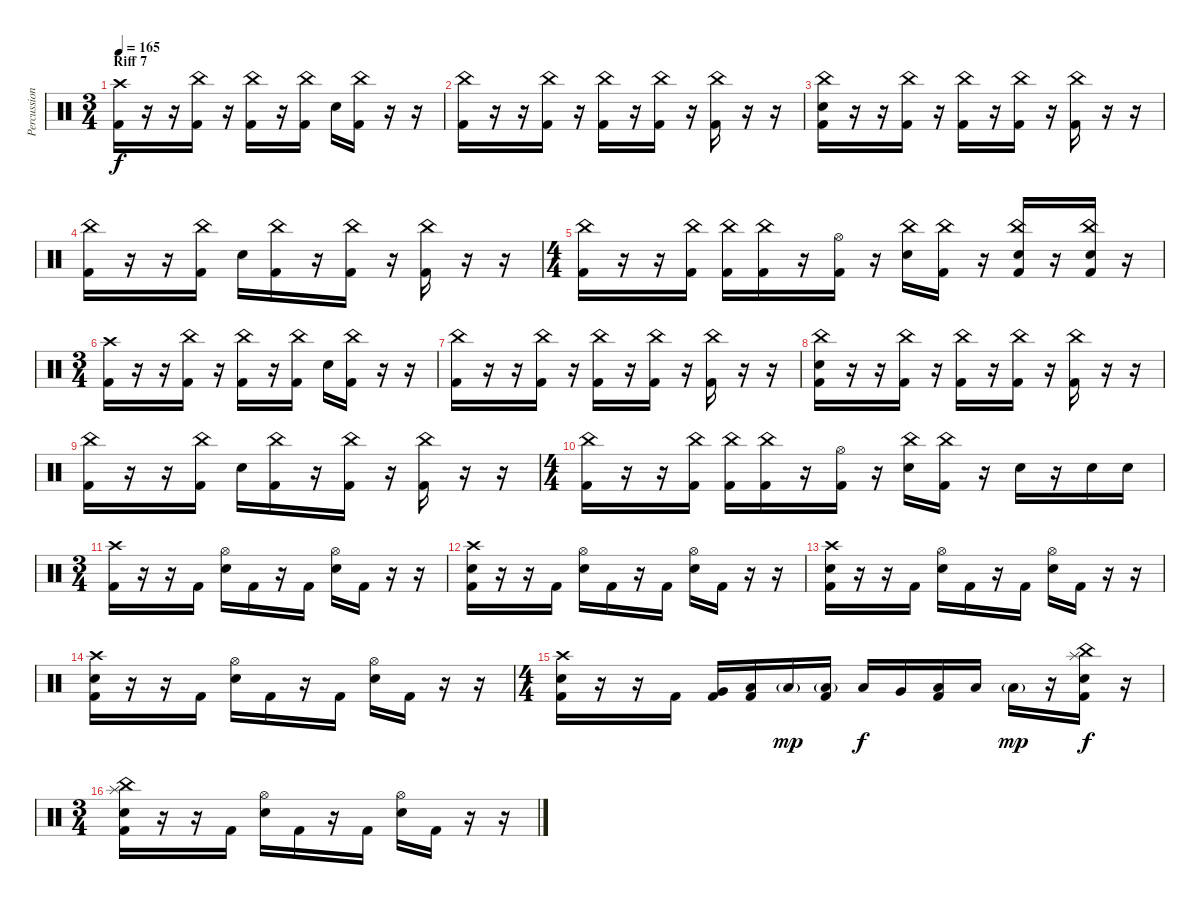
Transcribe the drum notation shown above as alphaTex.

\track ("Percussion" "Percussion") {instrument percussion}
\staff {score}
\articulation defaults
\ts (3 4)
\section ("" "Riff 7")
\tempo 165
\clef neutral
\ks c
("Crash high (hit)" "Kick (hit) 2").16{dy f} r.16 r.16 ("China (hit)" "Kick (hit) 2").16 r.16 ("China (hit)" "Kick (hit) 2").16 r.16 ("China (hit)" "Kick (hit) 2").16 "Electric Snare (hit)".16 ("China (hit)" "Kick (hit) 2").16 r.16 r.16 |
("China (hit)" "Kick (hit) 2").16 r.16 r.16 ("China (hit)" "Kick (hit) 2").16 r.16 ("China (hit)" "Kick (hit) 2").16 r.16 ("China (hit)" "Kick (hit) 2").16 r.16 ("China (hit)" "Kick (hit) 2").16 r.16 r.16 |
("China (hit)" "Electric Snare (hit)" "Kick (hit) 2").16 r.16 r.16 ("China (hit)" "Kick (hit) 2").16 r.16 ("China (hit)" "Kick (hit) 2").16 r.16 ("China (hit)" "Kick (hit) 2").16 r.16 ("China (hit)" "Kick (hit) 2").16 r.16 r.16 |
("China (hit)" "Kick (hit) 2").16 r.16 r.16 ("China (hit)" "Kick (hit) 2").16 "Electric Snare (hit)".16 ("China (hit)" "Kick (hit) 2").16 r.16 ("China (hit)" "Kick (hit) 2").16 r.16 ("China (hit)" "Kick (hit) 2").16 r.16 r.16 |
\ts (4 4)
("China (hit)" "Kick (hit) 2").16 r.16 r.16 ("China (hit)" "Kick (hit) 2").16 ("China (hit)" "Kick (hit) 2").16 ("China (hit)" "Kick (hit) 2").16 r.16 ("Hi-Hat (open)" "Kick (hit) 2").16 r.16 ("China (hit)" "Electric Snare (hit)").16 ("China (hit)" "Kick (hit) 2").16 r.16 ("China (hit)" "Electric Snare (hit)" "Kick (hit) 2").16 r.16 ("China (hit)" "Electric Snare (hit)" "Kick (hit) 2").16 r.16 |
\ts (3 4)
("Crash high (hit)" "Kick (hit) 2").16 r.16 r.16 ("China (hit)" "Kick (hit) 2").16 r.16 ("China (hit)" "Kick (hit) 2").16 r.16 ("China (hit)" "Kick (hit) 2").16 "Electric Snare (hit)".16 ("China (hit)" "Kick (hit) 2").16 r.16 r.16 |
("China (hit)" "Kick (hit) 2").16 r.16 r.16 ("China (hit)" "Kick (hit) 2").16 r.16 ("China (hit)" "Kick (hit) 2").16 r.16 ("China (hit)" "Kick (hit) 2").16 r.16 ("China (hit)" "Kick (hit) 2").16 r.16 r.16 |
("China (hit)" "Electric Snare (hit)" "Kick (hit) 2").16 r.16 r.16 ("China (hit)" "Kick (hit) 2").16 r.16 ("China (hit)" "Kick (hit) 2").16 r.16 ("China (hit)" "Kick (hit) 2").16 r.16 ("China (hit)" "Kick (hit) 2").16 r.16 r.16 |
("China (hit)" "Kick (hit) 2").16 r.16 r.16 ("China (hit)" "Kick (hit) 2").16 "Electric Snare (hit)".16 ("China (hit)" "Kick (hit) 2").16 r.16 ("China (hit)" "Kick (hit) 2").16 r.16 ("China (hit)" "Kick (hit) 2").16 r.16 r.16 |
\ts (4 4)
("China (hit)" "Kick (hit) 2").16 r.16 r.16 ("China (hit)" "Kick (hit) 2").16 ("China (hit)" "Kick (hit) 2").16 ("China (hit)" "Kick (hit) 2").16 r.16 ("Hi-Hat (open)" "Kick (hit) 2").16 r.16 ("China (hit)" "Electric Snare (hit)").16 ("China (hit)" "Kick (hit) 2").16 r.16 "Electric Snare (hit)".16 r.16 "Electric Snare (hit)".16 "Electric Snare (hit)".16 |
\ts (3 4)
("Crash high (hit)" "Kick (hit) 2").16 r.16 r.16 "Kick (hit) 2".16 ("Hi-Hat (open)" "Electric Snare (hit)").16 "Kick (hit) 2".16 r.16 "Kick (hit) 2".16 ("Hi-Hat (open)" "Electric Snare (hit)").16 "Kick (hit) 2".16 r.16 r.16 |
("Crash high (hit)" "Electric Snare (hit)" "Kick (hit) 2").16 r.16 r.16 "Kick (hit) 2".16 ("Hi-Hat (open)" "Electric Snare (hit)").16 "Kick (hit) 2".16 r.16 "Kick (hit) 2".16 ("Hi-Hat (open)" "Electric Snare (hit)").16 "Kick (hit) 2".16 r.16 r.16 |
("Crash high (hit)" "Electric Snare (hit)" "Kick (hit) 2").16 r.16 r.16 "Kick (hit) 2".16 ("Hi-Hat (open)" "Electric Snare (hit)").16 "Kick (hit) 2".16 r.16 "Kick (hit) 2".16 ("Hi-Hat (open)" "Electric Snare (hit)").16 "Kick (hit) 2".16 r.16 r.16 |
("Crash high (hit)" "Electric Snare (hit)" "Kick (hit) 2").16 r.16 r.16 "Kick (hit) 2".16 ("Hi-Hat (open)" "Electric Snare (hit)").16 "Kick (hit) 2".16 r.16 "Kick (hit) 2".16 ("Hi-Hat (open)" "Electric Snare (hit)").16 "Kick (hit) 2".16 r.16 r.16 |
\ts (4 4)
("Crash high (hit)" "Electric Snare (hit)" "Kick (hit) 2").16 r.16 r.16 "Kick (hit) 2".16 ("Very Low Tom (hit)" "Kick (hit) 2").16 ("Low Tom (hit)" "Kick (hit) 2").16 "Low Floor Tom (hit)"{g}.16{dy mp} ("Low Floor Tom (hit)"{g} "Kick (hit) 2").16 "Low Tom (hit)".16{dy f} "Very Low Tom (hit)".16 ("Low Floor Tom (hit)" "Kick (hit) 2").16 "Low Floor Tom (hit)".16 "Low Floor Tom (hit)"{g}.16{dy mp} r.16 ("Splash (hit)" "China (hit)" "Electric Snare (hit)" "Kick (hit) 2").16{dy f} r.16 |
\ts (3 4)
("Splash (hit)" "China (hit)" "Electric Snare (hit)" "Kick (hit) 2").16 r.16 r.16 "Kick (hit) 2".16 ("Hi-Hat (open)" "Electric Snare (hit)").16 "Kick (hit) 2".16 r.16 "Kick (hit) 2".16 ("Hi-Hat (open)" "Electric Snare (hit)").16 "Kick (hit) 2".16 r.16 r.16
